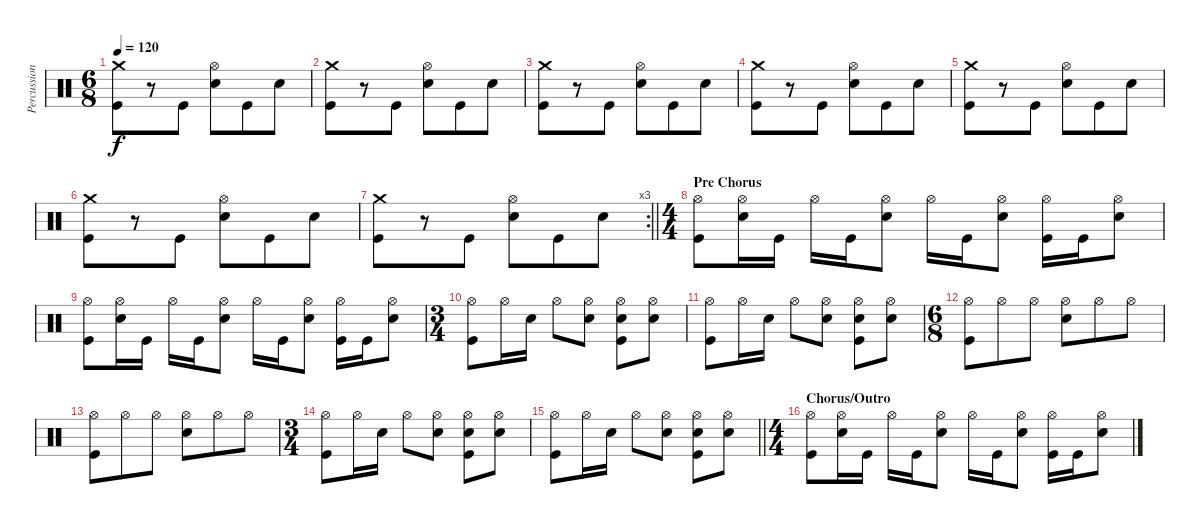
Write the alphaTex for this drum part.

\track ("Percussion" "Percussion") {instrument percussion}
\staff {score}
\articulation defaults
\ts (6 8)
\tempo 120
\clef neutral
\ks c
("Crash medium (hit)" "Kick (hit)").8{dy f} r.8 "Kick (hit)".8 ("Hi-Hat (open)" "Snare (hit) 2").8 "Kick (hit)".8 "Snare (hit) 2".8 |
("Crash medium (hit)" "Kick (hit)").8 r.8 "Kick (hit)".8 ("Hi-Hat (open)" "Snare (hit) 2").8 "Kick (hit)".8 "Snare (hit) 2".8 |
("Crash medium (hit)" "Kick (hit)").8 r.8 "Kick (hit)".8 ("Hi-Hat (open)" "Snare (hit) 2").8 "Kick (hit)".8 "Snare (hit) 2".8 |
("Crash medium (hit)" "Kick (hit)").8 r.8 "Kick (hit)".8 ("Hi-Hat (open)" "Snare (hit) 2").8 "Kick (hit)".8 "Snare (hit) 2".8 |
("Crash medium (hit)" "Kick (hit)").8 r.8 "Kick (hit)".8 ("Hi-Hat (open)" "Snare (hit) 2").8 "Kick (hit)".8 "Snare (hit) 2".8 |
("Crash medium (hit)" "Kick (hit)").8 r.8 "Kick (hit)".8 ("Hi-Hat (open)" "Snare (hit) 2").8 "Kick (hit)".8 "Snare (hit) 2".8 |
\rc 3
\barLineRight lightlight
("Crash medium (hit)" "Kick (hit)").8 r.8 "Kick (hit)".8 ("Hi-Hat (open)" "Snare (hit) 2").8 "Kick (hit)".8 "Snare (hit) 2".8 |
\ts (4 4)
\section ("" "Pre Chorus")
("Hi-Hat (open)" "Kick (hit)").8 ("Hi-Hat (open)" "Snare (hit) 2").16 "Kick (hit)".16 "Hi-Hat (open)".16 "Kick (hit)".16 ("Hi-Hat (open)" "Snare (hit) 2").8 "Hi-Hat (open)".16 "Kick (hit)".16 ("Hi-Hat (open)" "Snare (hit) 2").8 ("Hi-Hat (open)" "Kick (hit)").16 "Kick (hit)".16 ("Hi-Hat (open)" "Snare (hit) 2").8 |
("Hi-Hat (open)" "Kick (hit)").8 ("Hi-Hat (open)" "Snare (hit) 2").16 "Kick (hit)".16 "Hi-Hat (open)".16 "Kick (hit)".16 ("Hi-Hat (open)" "Snare (hit) 2").8 "Hi-Hat (open)".16 "Kick (hit)".16 ("Hi-Hat (open)" "Snare (hit) 2").8 ("Hi-Hat (open)" "Kick (hit)").16 "Kick (hit)".16 ("Hi-Hat (open)" "Snare (hit) 2").8 |
\ts (3 4)
("Hi-Hat (open)" "Kick (hit)").8 "Hi-Hat (open)".16 "Snare (hit) 2".16 "Hi-Hat (open)".8 ("Hi-Hat (open)" "Snare (hit) 2").8 ("Hi-Hat (open)" "Snare (hit) 2" "Kick (hit)").8 ("Hi-Hat (open)" "Snare (hit) 2").8 |
("Hi-Hat (open)" "Kick (hit)").8 "Hi-Hat (open)".16 "Snare (hit) 2".16 "Hi-Hat (open)".8 ("Hi-Hat (open)" "Snare (hit) 2").8 ("Hi-Hat (open)" "Snare (hit) 2" "Kick (hit)").8 ("Hi-Hat (open)" "Snare (hit) 2").8 |
\ts (6 8)
("Hi-Hat (open)" "Kick (hit)").8 "Hi-Hat (open)".8 "Hi-Hat (open)".8 ("Hi-Hat (open)" "Snare (hit) 2").8 "Hi-Hat (open)".8 "Hi-Hat (open)".8 |
("Hi-Hat (open)" "Kick (hit)").8 "Hi-Hat (open)".8 "Hi-Hat (open)".8 ("Hi-Hat (open)" "Snare (hit) 2").8 "Hi-Hat (open)".8 "Hi-Hat (open)".8 |
\ts (3 4)
("Hi-Hat (open)" "Kick (hit)").8 "Hi-Hat (open)".16 "Snare (hit) 2".16 "Hi-Hat (open)".8 ("Hi-Hat (open)" "Snare (hit) 2").8 ("Hi-Hat (open)" "Snare (hit) 2" "Kick (hit)").8 ("Hi-Hat (open)" "Snare (hit) 2").8 |
\barLineRight lightlight
("Hi-Hat (open)" "Kick (hit)").8 "Hi-Hat (open)".16 "Snare (hit) 2".16 "Hi-Hat (open)".8 ("Hi-Hat (open)" "Snare (hit) 2").8 ("Hi-Hat (open)" "Snare (hit) 2" "Kick (hit)").8 ("Hi-Hat (open)" "Snare (hit) 2").8 |
\ts (4 4)
\section ("" "Chorus/Outro")
("Hi-Hat (open)" "Kick (hit)").8 ("Hi-Hat (open)" "Snare (hit) 2").16 "Kick (hit)".16 "Hi-Hat (open)".16 "Kick (hit)".16 ("Hi-Hat (open)" "Snare (hit) 2").8 "Hi-Hat (open)".16 "Kick (hit)".16 ("Hi-Hat (open)" "Snare (hit) 2").8 ("Hi-Hat (open)" "Kick (hit)").16 "Kick (hit)".16 ("Hi-Hat (open)" "Snare (hit) 2").8
